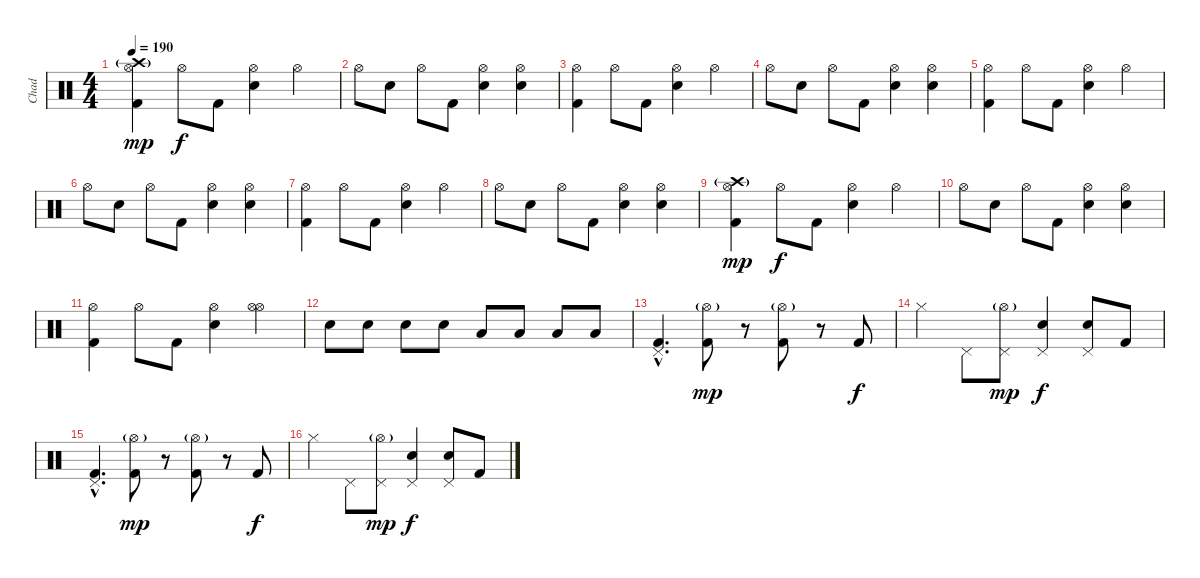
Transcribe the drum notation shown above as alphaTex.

\track ("Chad" "Chad") {instrument percussion}
\staff {score}
\articulation defaults
\ts (4 4)
\tempo 190
\clef neutral
\ks c
("Hi-Hat (open)" "Kick (hit) 2" "Crash high (hit)"{g}).4{dy mp} "Hi-Hat (open)".8{dy f} "Kick (hit) 2".8 ("Hi-Hat (open)" "Electric Snare (hit)").4 "Hi-Hat (open)".4 |
"Hi-Hat (open)".8 "Electric Snare (hit)".8 "Hi-Hat (open)".8 "Kick (hit) 2".8 ("Hi-Hat (open)" "Electric Snare (hit)").4 ("Hi-Hat (open)" "Electric Snare (hit)").4 |
("Hi-Hat (open)" "Kick (hit) 2").4 "Hi-Hat (open)".8 "Kick (hit) 2".8 ("Hi-Hat (open)" "Electric Snare (hit)").4 "Hi-Hat (open)".4 |
"Hi-Hat (open)".8 "Electric Snare (hit)".8 "Hi-Hat (open)".8 "Kick (hit) 2".8 ("Hi-Hat (open)" "Electric Snare (hit)").4 ("Hi-Hat (open)" "Electric Snare (hit)").4 |
("Hi-Hat (open)" "Kick (hit) 2").4 "Hi-Hat (open)".8 "Kick (hit) 2".8 ("Hi-Hat (open)" "Electric Snare (hit)").4 "Hi-Hat (open)".4 |
"Hi-Hat (open)".8 "Electric Snare (hit)".8 "Hi-Hat (open)".8 "Kick (hit) 2".8 ("Hi-Hat (open)" "Electric Snare (hit)").4 ("Hi-Hat (open)" "Electric Snare (hit)").4 |
("Hi-Hat (open)" "Kick (hit) 2").4 "Hi-Hat (open)".8 "Kick (hit) 2".8 ("Hi-Hat (open)" "Electric Snare (hit)").4 "Hi-Hat (open)".4 |
"Hi-Hat (open)".8 "Electric Snare (hit)".8 "Hi-Hat (open)".8 "Kick (hit) 2".8 ("Hi-Hat (open)" "Electric Snare (hit)").4 ("Hi-Hat (open)" "Electric Snare (hit)").4 |
("Hi-Hat (open)" "Kick (hit) 2" "Crash high (hit)"{g}).4{dy mp} "Hi-Hat (open)".8{dy f} "Kick (hit) 2".8 ("Hi-Hat (open)" "Electric Snare (hit)").4 "Hi-Hat (open)".4 |
"Hi-Hat (open)".8 "Electric Snare (hit)".8 "Hi-Hat (open)".8 "Kick (hit) 2".8 ("Hi-Hat (open)" "Electric Snare (hit)").4 ("Hi-Hat (open)" "Electric Snare (hit)").4 |
("Hi-Hat (open)" "Kick (hit) 2").4 "Hi-Hat (open)".8 "Kick (hit) 2".8 ("Hi-Hat (open)" "Electric Snare (hit)").4 ("Hi-Hat (open)" "Hi-Hat (open)").4 |
"Electric Snare (hit)".8 "Electric Snare (hit)".8 "Electric Snare (hit)".8 "Electric Snare (hit)".8 "Low Tom (hit)".8 "Low Tom (hit)".8 "Low Tom (hit)".8 "Low Tom (hit)".8 |
("Kick (hit) 2"{hac} "Pedal Hi-Hat (hit)"{hac}).4{d} ("Kick (hit) 2" "Hi-Hat (open)"{g}).8{dy mp} r.8 ("Kick (hit) 2" "Hi-Hat (open)"{g}).8 r.8 "Kick (hit) 2".8{dy f} |
"Hi-Hat (closed)".4 "Pedal Hi-Hat (hit)".8 ("Pedal Hi-Hat (hit)" "Hi-Hat (open)"{g}).8{dy mp} ("Electric Snare (hit)" "Pedal Hi-Hat (hit)").4{dy f} ("Electric Snare (hit)" "Pedal Hi-Hat (hit)").8 "Kick (hit) 2".8 |
("Kick (hit) 2"{hac} "Pedal Hi-Hat (hit)"{hac}).4{d} ("Kick (hit) 2" "Hi-Hat (open)"{g}).8{dy mp} r.8 ("Kick (hit) 2" "Hi-Hat (open)"{g}).8 r.8 "Kick (hit) 2".8{dy f} |
"Hi-Hat (closed)".4 "Pedal Hi-Hat (hit)".8 ("Pedal Hi-Hat (hit)" "Hi-Hat (open)"{g}).8{dy mp} ("Electric Snare (hit)" "Pedal Hi-Hat (hit)").4{dy f} ("Electric Snare (hit)" "Pedal Hi-Hat (hit)").8 "Kick (hit) 2".8
